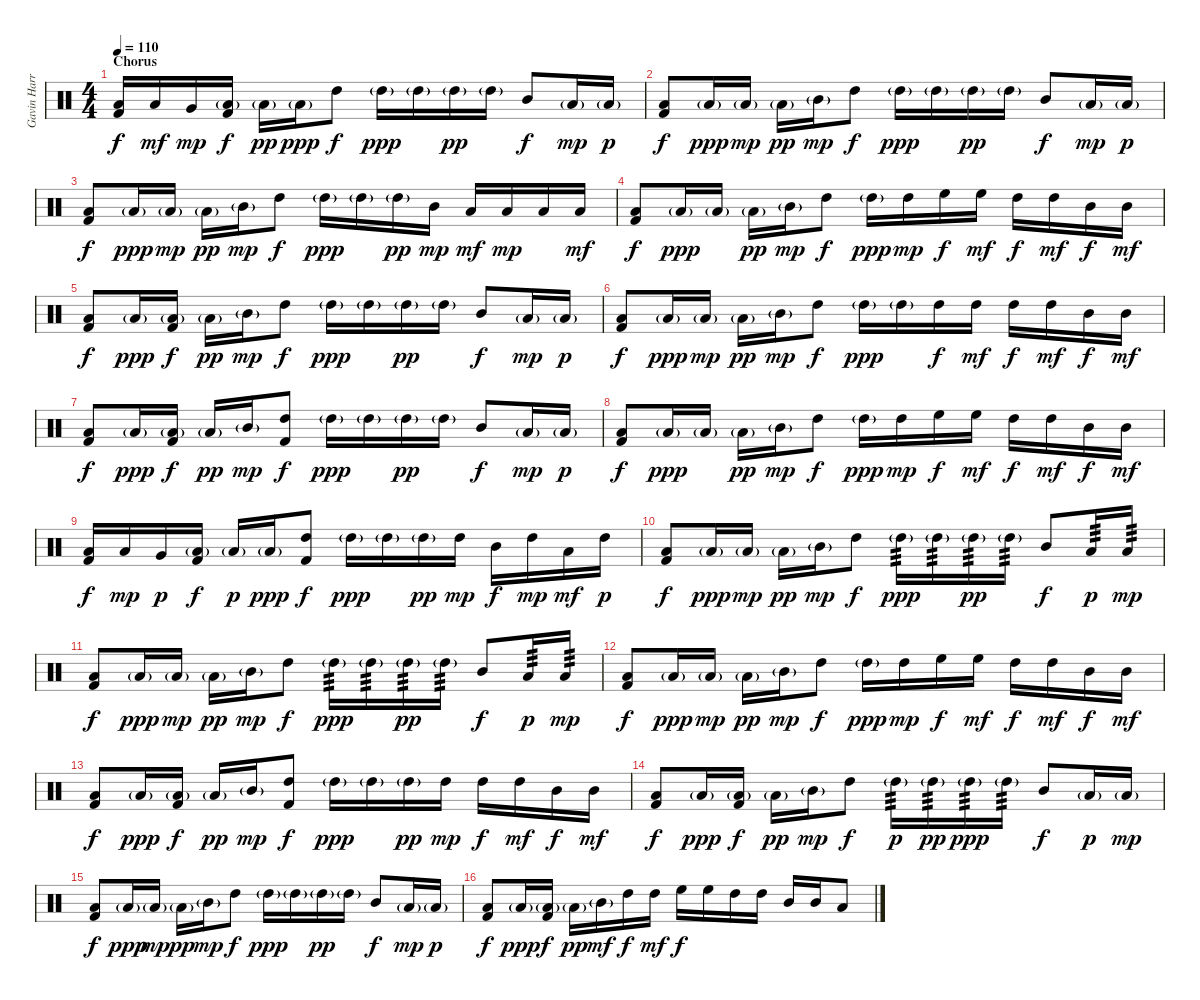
\track ("Gavin Harrison - Drums" "Gavin Harr") {instrument percussion}
\staff {score}
\articulation defaults
\ts (4 4)
\section ("" "Chorus")
\tempo 110
\clef neutral
\ks c
("Low Tom (hit)" "Kick (hit) 2").16{dy f} "Low Tom (hit)".16{dy mf} "Very Low Tom (hit)".16{dy mp} ("Low Floor Tom (hit)"{g} "Kick (hit) 2").16{dy f} "Low Floor Tom (hit)"{g}.16{dy pp} "Low Floor Tom (hit)"{g}.16{dy ppp} "High Tom (hit)".8{dy f} "High Tom (hit)"{g}.16{dy ppp} "High Tom (hit)"{g}.16 "High Tom (hit)"{g}.16{dy pp} "High Tom (hit)"{g}.16 "Mid Tom (hit)".8{dy f} "Low Tom (hit)"{g}.16{dy mp} "Low Tom (hit)"{g}.16{dy p} |
("Low Floor Tom (hit)" "Kick (hit) 2").8{dy f} "Low Floor Tom (hit)"{g}.16{dy ppp} "Low Tom (hit)"{g}.16{dy mp} "Low Tom (hit)"{g}.16{dy pp} "Mid Tom (hit)"{g}.16{dy mp} "High Tom (hit)".8{dy f} "High Tom (hit)"{g}.16{dy ppp} "High Tom (hit)"{g}.16 "High Tom (hit)"{g}.16{dy pp} "High Tom (hit)"{g}.16 "Mid Tom (hit)".8{dy f} "Low Tom (hit)"{g}.16{dy mp} "Low Tom (hit)"{g}.16{dy p} |
("Low Floor Tom (hit)" "Kick (hit) 2").8{dy f} "Low Floor Tom (hit)"{g}.16{dy ppp} "Low Tom (hit)"{g}.16{dy mp} "Low Tom (hit)"{g}.16{dy pp} "Mid Tom (hit)"{g}.16{dy mp} "High Tom (hit)".8{dy f} "High Tom (hit)"{g}.16{dy ppp} "High Tom (hit)"{g}.16 "High Tom (hit)"{g}.16{dy pp} "Mid Tom (hit)".16{dy mp} "Low Tom (hit)".16{dy mf} "Low Tom (hit)".16{dy mp} "Low Tom (hit)".16 "Low Tom (hit)".16{dy mf} |
("Low Floor Tom (hit)" "Kick (hit) 2").8{dy f} "Low Floor Tom (hit)"{g}.16{dy ppp} "Low Tom (hit)"{g}.16 "Low Tom (hit)"{g}.16{dy pp} "Mid Tom (hit)"{g}.16{dy mp} "High Tom (hit)".8{dy f} "High Tom (hit)"{g}.16{dy ppp} "High Tom (hit)".16{dy mp} "High Floor Tom (hit)".16{dy f} "High Floor Tom (hit)".16{dy mf} "High Tom (hit)".16{dy f} "High Tom (hit)".16{dy mf} "Mid Tom (hit)".16{dy f} "Mid Tom (hit)".16{dy mf} |
("Low Floor Tom (hit)" "Kick (hit) 2").8{dy f} "Low Floor Tom (hit)"{g}.16{dy ppp} ("Low Tom (hit)"{g} "Kick (hit) 2").16{dy f} "Low Tom (hit)"{g}.16{dy pp} "Mid Tom (hit)"{g}.16{dy mp} "High Tom (hit)".8{dy f} "High Tom (hit)"{g}.16{dy ppp} "High Tom (hit)"{g}.16 "High Tom (hit)"{g}.16{dy pp} "High Tom (hit)"{g}.16 "Mid Tom (hit)".8{dy f} "Low Tom (hit)"{g}.16{dy mp} "Low Tom (hit)"{g}.16{dy p} |
("Low Floor Tom (hit)" "Kick (hit) 2").8{dy f} "Low Floor Tom (hit)"{g}.16{dy ppp} "Low Tom (hit)"{g}.16{dy mp} "Low Tom (hit)"{g}.16{dy pp} "Mid Tom (hit)"{g}.16{dy mp} "High Tom (hit)".8{dy f} "High Tom (hit)"{g}.16{dy ppp} "High Tom (hit)"{g}.16 "High Tom (hit)".16{dy f} "High Tom (hit)".16{dy mf} "High Tom (hit)".16{dy f} "High Tom (hit)".16{dy mf} "Mid Tom (hit)".16{dy f} "Mid Tom (hit)".16{dy mf} |
("Low Floor Tom (hit)" "Kick (hit) 2").8{dy f} "Low Floor Tom (hit)"{g}.16{dy ppp} ("Low Tom (hit)"{g} "Kick (hit) 2").16{dy f} "Low Tom (hit)"{g}.16{dy pp} "Mid Tom (hit)"{g}.16{dy mp} ("High Tom (hit)" "Kick (hit) 2").8{dy f} "High Tom (hit)"{g}.16{dy ppp} "High Tom (hit)"{g}.16 "High Tom (hit)"{g}.16{dy pp} "High Tom (hit)"{g}.16 "Mid Tom (hit)".8{dy f} "Low Tom (hit)"{g}.16{dy mp} "Low Tom (hit)"{g}.16{dy p} |
("Low Floor Tom (hit)" "Kick (hit) 2").8{dy f} "Low Floor Tom (hit)"{g}.16{dy ppp} "Low Tom (hit)"{g}.16 "Low Tom (hit)"{g}.16{dy pp} "Mid Tom (hit)"{g}.16{dy mp} "High Tom (hit)".8{dy f} "High Tom (hit)"{g}.16{dy ppp} "High Tom (hit)".16{dy mp} "High Floor Tom (hit)".16{dy f} "High Floor Tom (hit)".16{dy mf} "High Tom (hit)".16{dy f} "High Tom (hit)".16{dy mf} "Mid Tom (hit)".16{dy f} "Mid Tom (hit)".16{dy mf} |
("Low Tom (hit)" "Kick (hit) 2").16{dy f} "Low Tom (hit)".16{dy mp} "Very Low Tom (hit)".16{dy p} ("Low Floor Tom (hit)"{g} "Kick (hit) 2").16{dy f} "Low Floor Tom (hit)"{g}.16{dy p} "Low Floor Tom (hit)"{g}.16{dy ppp} ("High Tom (hit)" "Kick (hit) 2").8{dy f} "High Tom (hit)"{g}.16{dy ppp} "High Tom (hit)"{g}.16 "High Tom (hit)"{g}.16{dy pp} "High Tom (hit)".16{dy mp} "Mid Tom (hit)".16{dy f} "High Tom (hit)".16{dy mp} "Low Tom (hit)".16{dy mf} "High Tom (hit)".16{dy p} |
("Low Floor Tom (hit)" "Kick (hit) 2").8{dy f} "Low Floor Tom (hit)"{g}.16{dy ppp} "Low Tom (hit)"{g}.16{dy mp} "Low Tom (hit)"{g}.16{dy pp} "Mid Tom (hit)"{g}.16{dy mp} "High Tom (hit)".8{dy f} "High Tom (hit)"{g}.16{tp 3 dy ppp} "High Tom (hit)"{g}.16{tp 3} "High Tom (hit)"{g}.16{tp 3 dy pp} "High Tom (hit)"{g}.16{tp 3} "Mid Tom (hit)".8{dy f} "Low Tom (hit)".16{tp 3 dy p} "Low Tom (hit)".16{tp 3 dy mp} |
("Low Floor Tom (hit)" "Kick (hit) 2").8{dy f} "Low Floor Tom (hit)"{g}.16{dy ppp} "Low Tom (hit)"{g}.16{dy mp} "Low Tom (hit)"{g}.16{dy pp} "Mid Tom (hit)"{g}.16{dy mp} "High Tom (hit)".8{dy f} "High Tom (hit)"{g}.16{tp 3 dy ppp} "High Tom (hit)"{g}.16{tp 3} "High Tom (hit)"{g}.16{tp 3 dy pp} "High Tom (hit)"{g}.16{tp 3} "Mid Tom (hit)".8{dy f} "Low Tom (hit)".16{tp 3 dy p} "Low Tom (hit)".16{tp 3 dy mp} |
("Low Floor Tom (hit)" "Kick (hit) 2").8{dy f} "Low Floor Tom (hit)"{g}.16{dy ppp} "Low Tom (hit)"{g}.16{dy mp} "Low Tom (hit)"{g}.16{dy pp} "Mid Tom (hit)"{g}.16{dy mp} "High Tom (hit)".8{dy f} "High Tom (hit)"{g}.16{dy ppp} "High Tom (hit)".16{dy mp} "High Floor Tom (hit)".16{dy f} "High Floor Tom (hit)".16{dy mf} "High Tom (hit)".16{dy f} "High Tom (hit)".16{dy mf} "Mid Tom (hit)".16{dy f} "Mid Tom (hit)".16{dy mf} |
("Low Floor Tom (hit)" "Kick (hit) 2").8{dy f} "Low Floor Tom (hit)"{g}.16{dy ppp} ("Low Tom (hit)"{g} "Kick (hit) 2").16{dy f} "Low Tom (hit)"{g}.16{dy pp} "Mid Tom (hit)"{g}.16{dy mp} ("High Tom (hit)" "Kick (hit) 2").8{dy f} "High Tom (hit)"{g}.16{dy ppp} "High Tom (hit)"{g}.16 "High Tom (hit)"{g}.16{dy pp} "High Tom (hit)".16{dy mp} "High Tom (hit)".16{dy f} "High Tom (hit)".16{dy mf} "Mid Tom (hit)".16{dy f} "Mid Tom (hit)".16{dy mf} |
("Low Floor Tom (hit)" "Kick (hit) 2").8{dy f} "Low Floor Tom (hit)"{g}.16{dy ppp} ("Low Tom (hit)"{g} "Kick (hit) 2").16{dy f} "Low Tom (hit)"{g}.16{dy pp} "Mid Tom (hit)"{g}.16{dy mp} "High Tom (hit)".8{dy f} "High Tom (hit)"{g}.16{tp 3 dy p} "High Tom (hit)"{g}.16{tp 3 dy pp} "High Tom (hit)"{g}.16{tp 3 dy ppp} "High Tom (hit)"{g}.16{tp 3} "Mid Tom (hit)".8{dy f} "Low Tom (hit)"{g}.16{dy p} "Low Tom (hit)"{g}.16{dy mp} |
("Low Floor Tom (hit)" "Kick (hit) 2").8{dy f} "Low Floor Tom (hit)"{g}.16{dy ppp} "Low Tom (hit)"{g}.16{dy mp} "Low Tom (hit)"{g}.16{dy pp} "Mid Tom (hit)"{g}.16{dy mp} "High Tom (hit)".8{dy f} "High Tom (hit)"{g}.16{dy ppp} "High Tom (hit)"{g}.16 "High Tom (hit)"{g}.16{dy pp} "High Tom (hit)"{g}.16 "Mid Tom (hit)".8{dy f} "Low Tom (hit)"{g}.16{dy mp} "Low Tom (hit)"{g}.16{dy p} |
("Low Floor Tom (hit)" "Kick (hit) 2").8{dy f} "Low Floor Tom (hit)"{g}.16{dy ppp} ("Low Tom (hit)"{g} "Kick (hit) 2").16{dy f} "Low Tom (hit)"{g}.16{dy pp} "Mid Tom (hit)"{g}.16{dy mf} "High Tom (hit)".16{dy f} "High Tom (hit)".16{dy mf} "High Floor Tom (hit)".16{dy f} "High Floor Tom (hit)".16 "High Tom (hit)".16 "High Tom (hit)".16 "Mid Tom (hit)".16 "Mid Tom (hit)".16 "Low Tom (hit)".8
